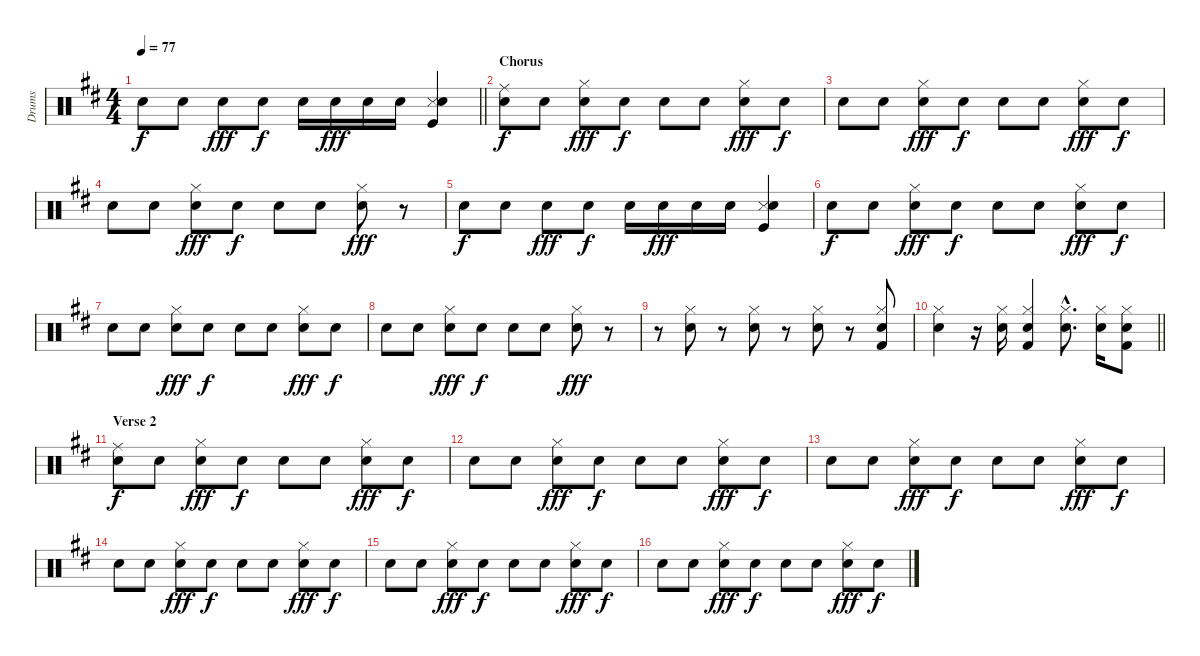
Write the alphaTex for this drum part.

\track ("Drums" "Drums") {instrument percussion}
\staff {score}
\articulation defaults
\ts (4 4)
\tempo 77
\clef neutral
\barLineRight lightlight
\ks d "Snare (hit) 2".8{dy f} "Snare (hit) 2".8 "Snare (hit) 2".8{dy fff} "Snare (hit) 2".8{dy f} "Snare (hit) 2".16 "Snare (hit) 2".16{dy fff} "Snare (hit) 2".16 "Snare (hit) 2".16
("Snare (side stick) 3" "Snare (hit) 2" "Kick (hit)").4 |
\section ("" "Chorus")
("Ride (middle)" "Snare (hit) 2").8{dy f} "Snare (hit) 2".8 ("Hi-Hat (closed)" "Snare (hit) 2").8{dy fff} "Snare (hit) 2".8{dy f} "Snare (hit) 2".8 "Snare (hit) 2".8 ("Hi-Hat (closed)" "Snare (hit) 2").8{dy fff} "Snare (hit) 2".8{dy f} |
"Snare (hit) 2".8 "Snare (hit) 2".8 ("Hi-Hat (closed)" "Snare (hit) 2").8{dy fff} "Snare (hit) 2".8{dy f} "Snare (hit) 2".8 "Snare (hit) 2".8 ("Hi-Hat (closed)" "Snare (hit) 2").8{dy fff} "Snare (hit) 2".8{dy f} |
"Snare (hit) 2".8 "Snare (hit) 2".8 ("Hi-Hat (closed)" "Snare (hit) 2").8{dy fff} "Snare (hit) 2".8{dy f} "Snare (hit) 2".8 "Snare (hit) 2".8 ("Hi-Hat (closed)" "Snare (hit) 2").8{dy fff} r.8 |
"Snare (hit) 2".8{dy f} "Snare (hit) 2".8 "Snare (hit) 2".8{dy fff} "Snare (hit) 2".8{dy f} "Snare (hit) 2".16 "Snare (hit) 2".16{dy fff} "Snare (hit) 2".16 "Snare (hit) 2".16 ("Snare (side stick) 3" "Snare (hit) 2" "Kick (hit)").4 |
"Snare (hit) 2".8{dy f} "Snare (hit) 2".8 ("Hi-Hat (closed)" "Snare (hit) 2").8{dy fff} "Snare (hit) 2".8{dy f} "Snare (hit) 2".8 "Snare (hit) 2".8 ("Hi-Hat (closed)" "Snare (hit) 2").8{dy fff} "Snare (hit) 2".8{dy f} |
"Snare (hit) 2".8 "Snare (hit) 2".8 ("Hi-Hat (closed)" "Snare (hit) 2").8{dy fff} "Snare (hit) 2".8{dy f} "Snare (hit) 2".8 "Snare (hit) 2".8 ("Hi-Hat (closed)" "Snare (hit) 2").8{dy fff} "Snare (hit) 2".8{dy f} |
"Snare (hit) 2".8 "Snare (hit) 2".8 ("Hi-Hat (closed)" "Snare (hit) 2").8{dy fff} "Snare (hit) 2".8{dy f} "Snare (hit) 2".8 "Snare (hit) 2".8 ("Hi-Hat (closed)" "Snare (hit) 2").8{dy fff} r.8 |
r.8 ("Hi-Hat (closed)" "Snare (hit) 2").8 r.8 ("Hi-Hat (closed)" "Snare (hit) 2").8 r.8 ("Hi-Hat (closed)" "Snare (hit) 2").8 r.8 ("Hi-Hat (closed)" "Snare (hit) 2" "Kick (hit) 2").8 |
\barLineRight lightlight
("Hi-Hat (closed)" "Snare (hit) 2").4 r.16 ("Hi-Hat (closed)" "Snare (hit) 2").16 ("Hi-Hat (closed)" "Snare (hit) 2" "Kick (hit) 2").4 ("Hi-Hat (closed)"{hac} "Snare (hit) 2"{hac}).8{d} ("Hi-Hat (closed)" "Snare (hit) 2").16 ("Hi-Hat (closed)" "Snare (hit) 2" "Kick (hit) 2").8 |
\section ("" "Verse 2")
("Ride (middle)" "Snare (hit) 2").8{dy f} "Snare (hit) 2".8 ("Hi-Hat (closed)" "Snare (hit) 2").8{dy fff} "Snare (hit) 2".8{dy f} "Snare (hit) 2".8 "Snare (hit) 2".8 ("Hi-Hat (closed)" "Snare (hit) 2").8{dy fff} "Snare (hit) 2".8{dy f} |
"Snare (hit) 2".8 "Snare (hit) 2".8 ("Hi-Hat (closed)" "Snare (hit) 2").8{dy fff} "Snare (hit) 2".8{dy f} "Snare (hit) 2".8 "Snare (hit) 2".8 ("Hi-Hat (closed)" "Snare (hit) 2").8{dy fff} "Snare (hit) 2".8{dy f} |
"Snare (hit) 2".8 "Snare (hit) 2".8 ("Hi-Hat (closed)" "Snare (hit) 2").8{dy fff} "Snare (hit) 2".8{dy f} "Snare (hit) 2".8 "Snare (hit) 2".8 ("Hi-Hat (closed)" "Snare (hit) 2").8{dy fff} "Snare (hit) 2".8{dy f} |
"Snare (hit) 2".8 "Snare (hit) 2".8 ("Hi-Hat (closed)" "Snare (hit) 2").8{dy fff} "Snare (hit) 2".8{dy f} "Snare (hit) 2".8 "Snare (hit) 2".8 ("Hi-Hat (closed)" "Snare (hit) 2").8{dy fff} "Snare (hit) 2".8{dy f} |
"Snare (hit) 2".8 "Snare (hit) 2".8 ("Hi-Hat (closed)" "Snare (hit) 2").8{dy fff} "Snare (hit) 2".8{dy f} "Snare (hit) 2".8 "Snare (hit) 2".8 ("Hi-Hat (closed)" "Snare (hit) 2").8{dy fff} "Snare (hit) 2".8{dy f} |
"Snare (hit) 2".8 "Snare (hit) 2".8 ("Hi-Hat (closed)" "Snare (hit) 2").8{dy fff} "Snare (hit) 2".8{dy f} "Snare (hit) 2".8 "Snare (hit) 2".8 ("Hi-Hat (closed)" "Snare (hit) 2").8{dy fff} "Snare (hit) 2".8{dy f}
